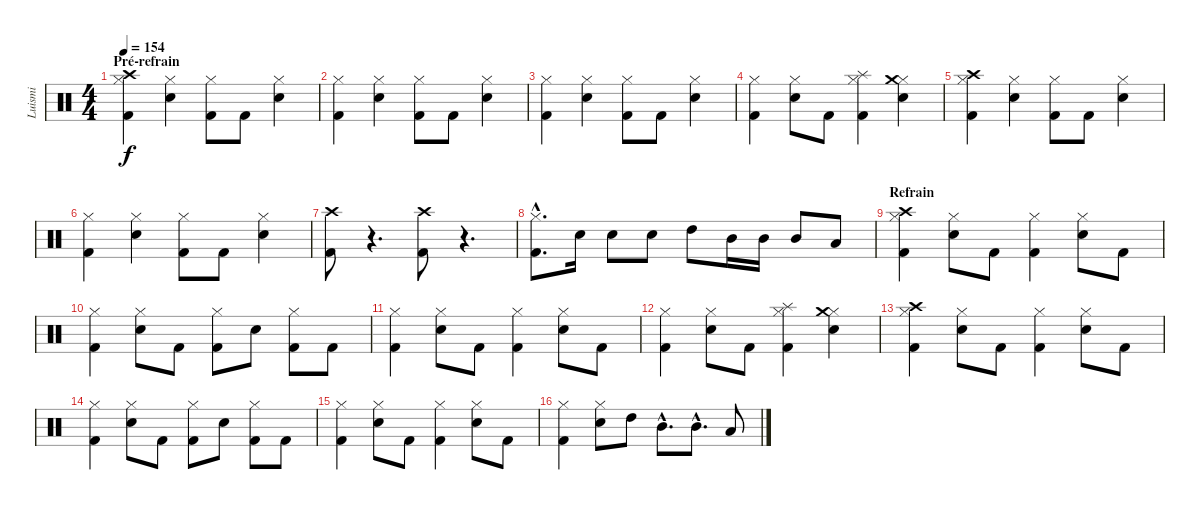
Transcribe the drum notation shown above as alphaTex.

\track ("Luismi" "Luismi") {instrument percussion}
\staff {score}
\articulation defaults
\ts (4 4)
\section ("" "Pré-refrain")
\tempo 154
\clef neutral
\ks c
("Kick (hit) 2" "Hi-Hat (closed)" "Crash high (hit)").4{dy f} ("Snare (hit) 2" "Hi-Hat (closed)").4 ("Kick (hit) 2" "Hi-Hat (closed)").8 "Kick (hit) 2".8 ("Snare (hit) 2" "Hi-Hat (closed)").4 |
("Kick (hit) 2" "Hi-Hat (closed)").4 ("Snare (hit) 2" "Hi-Hat (closed)").4 ("Kick (hit) 2" "Hi-Hat (closed)").8 "Kick (hit) 2".8 ("Snare (hit) 2" "Hi-Hat (closed)").4 |
("Kick (hit) 2" "Hi-Hat (closed)").4 ("Snare (hit) 2" "Hi-Hat (closed)").4 ("Kick (hit) 2" "Hi-Hat (closed)").8 "Kick (hit) 2".8 ("Snare (hit) 2" "Hi-Hat (closed)").4 |
("Kick (hit) 2" "Hi-Hat (closed)").4 ("Snare (hit) 2" "Hi-Hat (closed)").8 "Kick (hit) 2".8 ("Kick (hit) 2" "Hi-Hat (closed)" "Splash (hit)").4 ("Snare (hit) 2" "Hi-Hat (closed)" "Crash medium (hit)").4 |
("Kick (hit) 2" "Hi-Hat (closed)" "Crash high (hit)").4 ("Snare (hit) 2" "Hi-Hat (closed)").4 ("Kick (hit) 2" "Hi-Hat (closed)").8 "Kick (hit) 2".8 ("Snare (hit) 2" "Hi-Hat (closed)").4 |
("Kick (hit) 2" "Hi-Hat (closed)").4 ("Snare (hit) 2" "Hi-Hat (closed)").4 ("Kick (hit) 2" "Hi-Hat (closed)").8 "Kick (hit) 2".8 ("Snare (hit) 2" "Hi-Hat (closed)").4 |
("Kick (hit) 2" "Crash high (hit)").8 r.4{d} ("Kick (hit) 2" "Crash high (hit)").8 r.4{d} |
("Kick (hit) 2"{hac} "Hi-Hat (closed)"{hac}).8{d} "Snare (hit) 2".16 "Snare (hit) 2".8 "Snare (hit) 2".8 "High Tom (hit)".8 "Mid Tom (hit)".16 "Mid Tom (hit)".16 "Mid Tom (hit)".8 "Low Tom (hit)".8 |
\section ("" "Refrain ")
("Kick (hit) 2" "Hi-Hat (closed)" "Crash high (hit)").4 ("Snare (hit) 2" "Hi-Hat (closed)").8 "Kick (hit) 2".8 ("Kick (hit) 2" "Hi-Hat (closed)").4 ("Snare (hit) 2" "Hi-Hat (closed)").8 "Kick (hit) 2".8 |
("Kick (hit) 2" "Hi-Hat (closed)").4 ("Snare (hit) 2" "Hi-Hat (closed)").8 "Kick (hit) 2".8 ("Kick (hit) 2" "Hi-Hat (closed)").8 "Snare (hit) 2".8 ("Kick (hit) 2" "Hi-Hat (closed)").8 "Kick (hit) 2".8 |
("Kick (hit) 2" "Hi-Hat (closed)").4 ("Snare (hit) 2" "Hi-Hat (closed)").8 "Kick (hit) 2".8 ("Kick (hit) 2" "Hi-Hat (closed)").4 ("Snare (hit) 2" "Hi-Hat (closed)").8 "Kick (hit) 2".8 |
("Kick (hit) 2" "Hi-Hat (closed)").4 ("Snare (hit) 2" "Hi-Hat (closed)").8 "Kick (hit) 2".8 ("Kick (hit) 2" "Hi-Hat (closed)" "Splash (hit)").4 ("Snare (hit) 2" "Hi-Hat (closed)" "Crash medium (hit)").4 |
("Kick (hit) 2" "Hi-Hat (closed)" "Crash high (hit)").4 ("Snare (hit) 2" "Hi-Hat (closed)").8 "Kick (hit) 2".8 ("Kick (hit) 2" "Hi-Hat (closed)").4 ("Snare (hit) 2" "Hi-Hat (closed)").8 "Kick (hit) 2".8 |
("Kick (hit) 2" "Hi-Hat (closed)").4 ("Snare (hit) 2" "Hi-Hat (closed)").8 "Kick (hit) 2".8 ("Kick (hit) 2" "Hi-Hat (closed)").8 "Snare (hit) 2".8 ("Kick (hit) 2" "Hi-Hat (closed)").8 "Kick (hit) 2".8 |
("Kick (hit) 2" "Hi-Hat (closed)").4 ("Snare (hit) 2" "Hi-Hat (closed)").8 "Kick (hit) 2".8 ("Kick (hit) 2" "Hi-Hat (closed)").4 ("Snare (hit) 2" "Hi-Hat (closed)").8 "Kick (hit) 2".8 |
("Kick (hit) 2" "Hi-Hat (closed)").4 ("Snare (hit) 2" "Hi-Hat (closed)").8 "High Tom (hit)".8 "Mid Tom (hit)"{hac}.8{d} "Mid Tom (hit)"{hac}.8{d} "Low Tom (hit)".8
